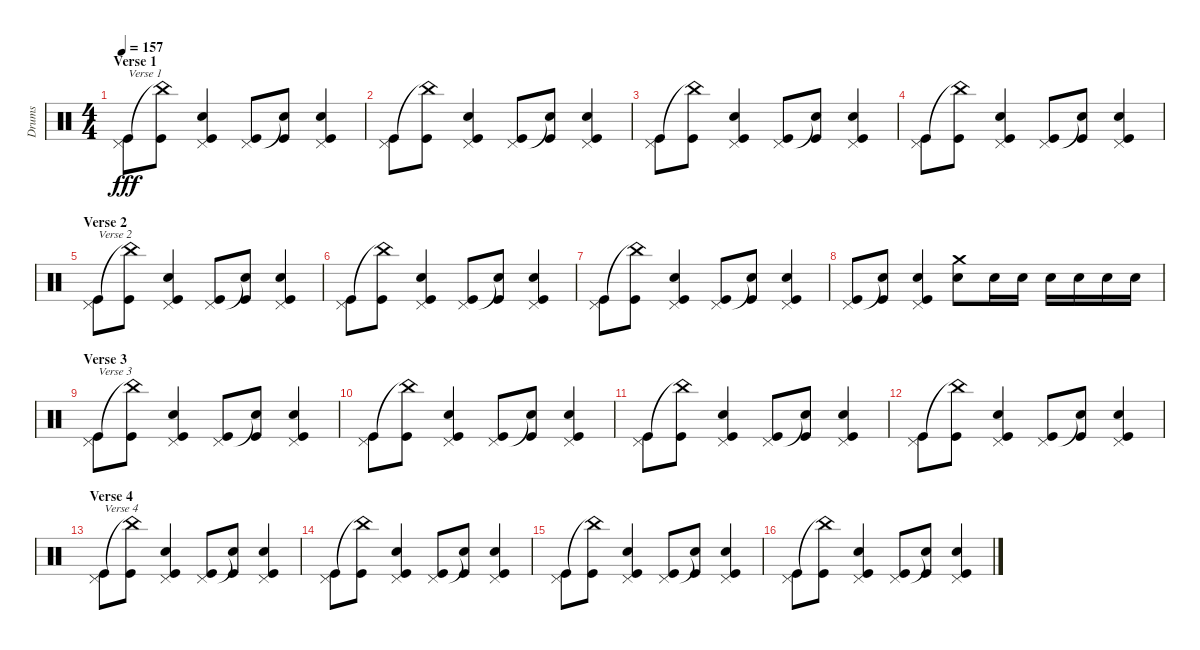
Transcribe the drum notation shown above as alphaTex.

\track ("Drums" "Drums") {instrument percussion}
\staff {score}
\articulation defaults
\ts (4 4)
\section ("" "Verse 1")
\tempo 157
\clef neutral
\ks c
("Pedal Hi-Hat (hit)" "Kick (hit)").8{txt "Verse 1" dy fff} ("China (hit)"{t} "Kick (hit)").8 ("Pedal Hi-Hat (hit)" "Electric Snare (hit)" "Kick (hit)").4 ("Pedal Hi-Hat (hit)" "Kick (hit)").8 ("Snare (hit)"{t} "Kick (hit)").8 ("Pedal Hi-Hat (hit)" "Electric Snare (hit)" "Kick (hit)").4 |
("Pedal Hi-Hat (hit)" "Kick (hit)").8 ("China (hit)"{t} "Kick (hit)").8 ("Pedal Hi-Hat (hit)" "Electric Snare (hit)" "Kick (hit)").4 ("Pedal Hi-Hat (hit)" "Kick (hit)").8 ("Snare (hit)"{t} "Kick (hit)").8 ("Pedal Hi-Hat (hit)" "Electric Snare (hit)" "Kick (hit)").4 |
("Pedal Hi-Hat (hit)" "Kick (hit)").8 ("China (hit)"{t} "Kick (hit)").8 ("Pedal Hi-Hat (hit)" "Electric Snare (hit)" "Kick (hit)").4 ("Pedal Hi-Hat (hit)" "Kick (hit)").8 ("Snare (hit)"{t} "Kick (hit)").8 ("Pedal Hi-Hat (hit)" "Electric Snare (hit)" "Kick (hit)").4 |
("Pedal Hi-Hat (hit)" "Kick (hit)").8 ("China (hit)"{t} "Kick (hit)").8 ("Pedal Hi-Hat (hit)" "Electric Snare (hit)" "Kick (hit)").4 ("Pedal Hi-Hat (hit)" "Kick (hit)").8 ("Snare (hit)"{t} "Kick (hit)").8 ("Pedal Hi-Hat (hit)" "Electric Snare (hit)" "Kick (hit)").4 |
\section ("" "Verse 2")
("Pedal Hi-Hat (hit)" "Kick (hit)").8{txt "Verse 2"} ("China (hit)"{t} "Kick (hit)").8 ("Pedal Hi-Hat (hit)" "Electric Snare (hit)" "Kick (hit)").4 ("Pedal Hi-Hat (hit)" "Kick (hit)").8 ("Snare (hit)"{t} "Kick (hit)").8 ("Pedal Hi-Hat (hit)" "Electric Snare (hit)" "Kick (hit)").4 |
("Pedal Hi-Hat (hit)" "Kick (hit)").8 ("China (hit)"{t} "Kick (hit)").8 ("Pedal Hi-Hat (hit)" "Electric Snare (hit)" "Kick (hit)").4 ("Pedal Hi-Hat (hit)" "Kick (hit)").8 ("Snare (hit)"{t} "Kick (hit)").8 ("Pedal Hi-Hat (hit)" "Electric Snare (hit)" "Kick (hit)").4 |
("Pedal Hi-Hat (hit)" "Kick (hit)").8 ("China (hit)"{t} "Kick (hit)").8 ("Pedal Hi-Hat (hit)" "Electric Snare (hit)" "Kick (hit)").4 ("Pedal Hi-Hat (hit)" "Kick (hit)").8 ("Snare (hit)"{t} "Kick (hit)").8 ("Pedal Hi-Hat (hit)" "Electric Snare (hit)" "Kick (hit)").4 |
("Pedal Hi-Hat (hit)" "Kick (hit)").8 ("Snare (hit)"{t} "Kick (hit)").8 ("Pedal Hi-Hat (hit)" "Electric Snare (hit)" "Kick (hit)").4 ("Crash medium (hit)" "Electric Snare (hit)").8 "Electric Snare (hit)".16 "Electric Snare (hit)".16 "Electric Snare (hit)".16 "Electric Snare (hit)".16 "Electric Snare (hit)".16 "Electric Snare (hit)".16 |
\section ("" "Verse 3")
("Pedal Hi-Hat (hit)" "Kick (hit)").8{txt "Verse 3"} ("China (hit)"{t} "Kick (hit)").8 ("Pedal Hi-Hat (hit)" "Electric Snare (hit)" "Kick (hit)").4 ("Pedal Hi-Hat (hit)" "Kick (hit)").8 ("Snare (hit)"{t} "Kick (hit)").8 ("Pedal Hi-Hat (hit)" "Electric Snare (hit)" "Kick (hit)").4 |
("Pedal Hi-Hat (hit)" "Kick (hit)").8 ("China (hit)"{t} "Kick (hit)").8 ("Pedal Hi-Hat (hit)" "Electric Snare (hit)" "Kick (hit)").4 ("Pedal Hi-Hat (hit)" "Kick (hit)").8 ("Snare (hit)"{t} "Kick (hit)").8 ("Pedal Hi-Hat (hit)" "Electric Snare (hit)" "Kick (hit)").4 |
("Pedal Hi-Hat (hit)" "Kick (hit)").8 ("China (hit)"{t} "Kick (hit)").8 ("Pedal Hi-Hat (hit)" "Electric Snare (hit)" "Kick (hit)").4 ("Pedal Hi-Hat (hit)" "Kick (hit)").8 ("Snare (hit)"{t} "Kick (hit)").8 ("Pedal Hi-Hat (hit)" "Electric Snare (hit)" "Kick (hit)").4 |
("Pedal Hi-Hat (hit)" "Kick (hit)").8 ("China (hit)"{t} "Kick (hit)").8 ("Pedal Hi-Hat (hit)" "Electric Snare (hit)" "Kick (hit)").4 ("Pedal Hi-Hat (hit)" "Kick (hit)").8 ("Snare (hit)"{t} "Kick (hit)").8 ("Pedal Hi-Hat (hit)" "Electric Snare (hit)" "Kick (hit)").4 |
\section ("" "Verse 4")
("Pedal Hi-Hat (hit)" "Kick (hit)").8{txt "Verse 4"} ("China (hit)"{t} "Kick (hit)").8 ("Pedal Hi-Hat (hit)" "Electric Snare (hit)" "Kick (hit)").4 ("Pedal Hi-Hat (hit)" "Kick (hit)").8 ("Snare (hit)"{t} "Kick (hit)").8 ("Pedal Hi-Hat (hit)" "Electric Snare (hit)" "Kick (hit)").4 |
("Pedal Hi-Hat (hit)" "Kick (hit)").8 ("China (hit)"{t} "Kick (hit)").8 ("Pedal Hi-Hat (hit)" "Electric Snare (hit)" "Kick (hit)").4 ("Pedal Hi-Hat (hit)" "Kick (hit)").8 ("Snare (hit)"{t} "Kick (hit)").8 ("Pedal Hi-Hat (hit)" "Electric Snare (hit)" "Kick (hit)").4 |
("Pedal Hi-Hat (hit)" "Kick (hit)").8 ("China (hit)"{t} "Kick (hit)").8 ("Pedal Hi-Hat (hit)" "Electric Snare (hit)" "Kick (hit)").4 ("Pedal Hi-Hat (hit)" "Kick (hit)").8 ("Snare (hit)"{t} "Kick (hit)").8 ("Pedal Hi-Hat (hit)" "Electric Snare (hit)" "Kick (hit)").4 |
("Pedal Hi-Hat (hit)" "Kick (hit)").8 ("China (hit)"{t} "Kick (hit)").8 ("Pedal Hi-Hat (hit)" "Electric Snare (hit)" "Kick (hit)").4 ("Pedal Hi-Hat (hit)" "Kick (hit)").8 ("Snare (hit)"{t} "Kick (hit)").8 ("Pedal Hi-Hat (hit)" "Electric Snare (hit)" "Kick (hit)").4
